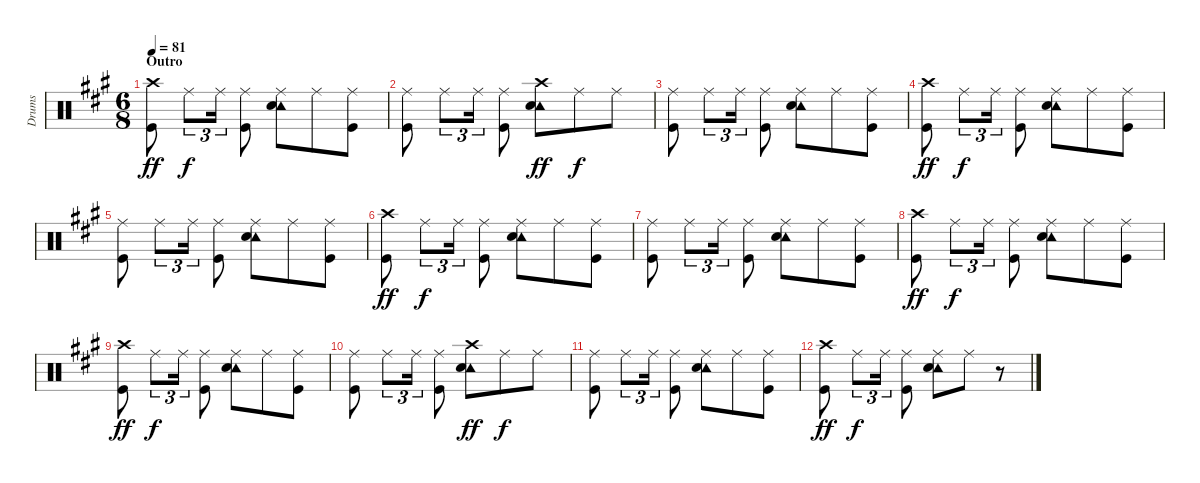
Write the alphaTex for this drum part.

\track ("Drums" "Drums") {instrument percussion}
\staff {score}
\articulation defaults
\ts (6 8)
\section ("" "Outro")
\tempo 81
\clef neutral
\ks a
("Crash high (hit)" "Kick (hit)").8{dy ff} "Ride (middle)".8{tu (3 2) dy f} "Ride (middle)".16{tu (3 2)} ("Ride (middle)" "Kick (hit)").8 ("Ride (middle)" "Tambourine (hit)" "Snare (hit) 2").8 "Ride (middle)".8 ("Ride (middle)" "Kick (hit)").8 |
("Ride (middle)" "Kick (hit)").8 "Ride (middle)".8{tu (3 2)} "Ride (middle)".16{tu (3 2)} ("Ride (middle)" "Kick (hit)").8 ("Crash high (hit)" "Tambourine (hit)" "Snare (hit) 2").8{dy ff} "Ride (middle)".8{dy f} "Ride (middle)".8 |
("Ride (middle)" "Kick (hit)").8 "Ride (middle)".8{tu (3 2)} "Ride (middle)".16{tu (3 2)} ("Ride (middle)" "Kick (hit)").8 ("Ride (middle)" "Tambourine (hit)" "Snare (hit) 2").8 "Ride (middle)".8 ("Ride (middle)" "Kick (hit)").8 |
("Crash high (hit)" "Kick (hit)").8{dy ff} "Ride (middle)".8{tu (3 2) dy f} "Ride (middle)".16{tu (3 2)} ("Ride (middle)" "Kick (hit)").8 ("Ride (middle)" "Tambourine (hit)" "Snare (hit) 2").8 "Ride (middle)".8 ("Ride (middle)" "Kick (hit)").8 |
("Ride (middle)" "Kick (hit)").8 "Ride (middle)".8{tu (3 2)} "Ride (middle)".16{tu (3 2)} ("Ride (middle)" "Kick (hit)").8 ("Ride (middle)" "Tambourine (hit)" "Snare (hit) 2").8 "Ride (middle)".8 ("Ride (middle)" "Kick (hit)").8 |
("Crash high (hit)" "Kick (hit)").8{dy ff} "Ride (middle)".8{tu (3 2) dy f} "Ride (middle)".16{tu (3 2)} ("Ride (middle)" "Kick (hit)").8 ("Ride (middle)" "Tambourine (hit)" "Snare (hit) 2").8 "Ride (middle)".8 ("Ride (middle)" "Kick (hit)").8 |
("Ride (middle)" "Kick (hit)").8 "Ride (middle)".8{tu (3 2)} "Ride (middle)".16{tu (3 2)} ("Ride (middle)" "Kick (hit)").8 ("Ride (middle)" "Tambourine (hit)" "Snare (hit) 2").8 "Ride (middle)".8 ("Ride (middle)" "Kick (hit)").8 |
("Crash high (hit)" "Kick (hit)").8{dy ff} "Ride (middle)".8{tu (3 2) dy f} "Ride (middle)".16{tu (3 2)} ("Ride (middle)" "Kick (hit)").8 ("Ride (middle)" "Tambourine (hit)" "Snare (hit) 2").8 "Ride (middle)".8 ("Ride (middle)" "Kick (hit)").8 |
("Crash high (hit)" "Kick (hit)").8{dy ff} "Ride (middle)".8{tu (3 2) dy f} "Ride (middle)".16{tu (3 2)} ("Ride (middle)" "Kick (hit)").8 ("Ride (middle)" "Tambourine (hit)" "Snare (hit) 2").8 "Ride (middle)".8 ("Ride (middle)" "Kick (hit)").8 |
("Ride (middle)" "Kick (hit)").8 "Ride (middle)".8{tu (3 2)} "Ride (middle)".16{tu (3 2)} ("Ride (middle)" "Kick (hit)").8 ("Crash high (hit)" "Tambourine (hit)" "Snare (hit) 2").8{dy ff} "Ride (middle)".8{dy f} "Ride (middle)".8 |
("Ride (middle)" "Kick (hit)").8 "Ride (middle)".8{tu (3 2)} "Ride (middle)".16{tu (3 2)} ("Ride (middle)" "Kick (hit)").8 ("Ride (middle)" "Tambourine (hit)" "Snare (hit) 2").8 "Ride (middle)".8 ("Ride (middle)" "Kick (hit)").8 |
("Crash high (hit)" "Kick (hit)").8{dy ff} "Ride (middle)".8{tu (3 2) dy f} "Ride (middle)".16{tu (3 2)} ("Ride (middle)" "Kick (hit)").8 ("Ride (middle)" "Tambourine (hit)" "Snare (hit) 2").8 "Ride (middle)".8 r.8
